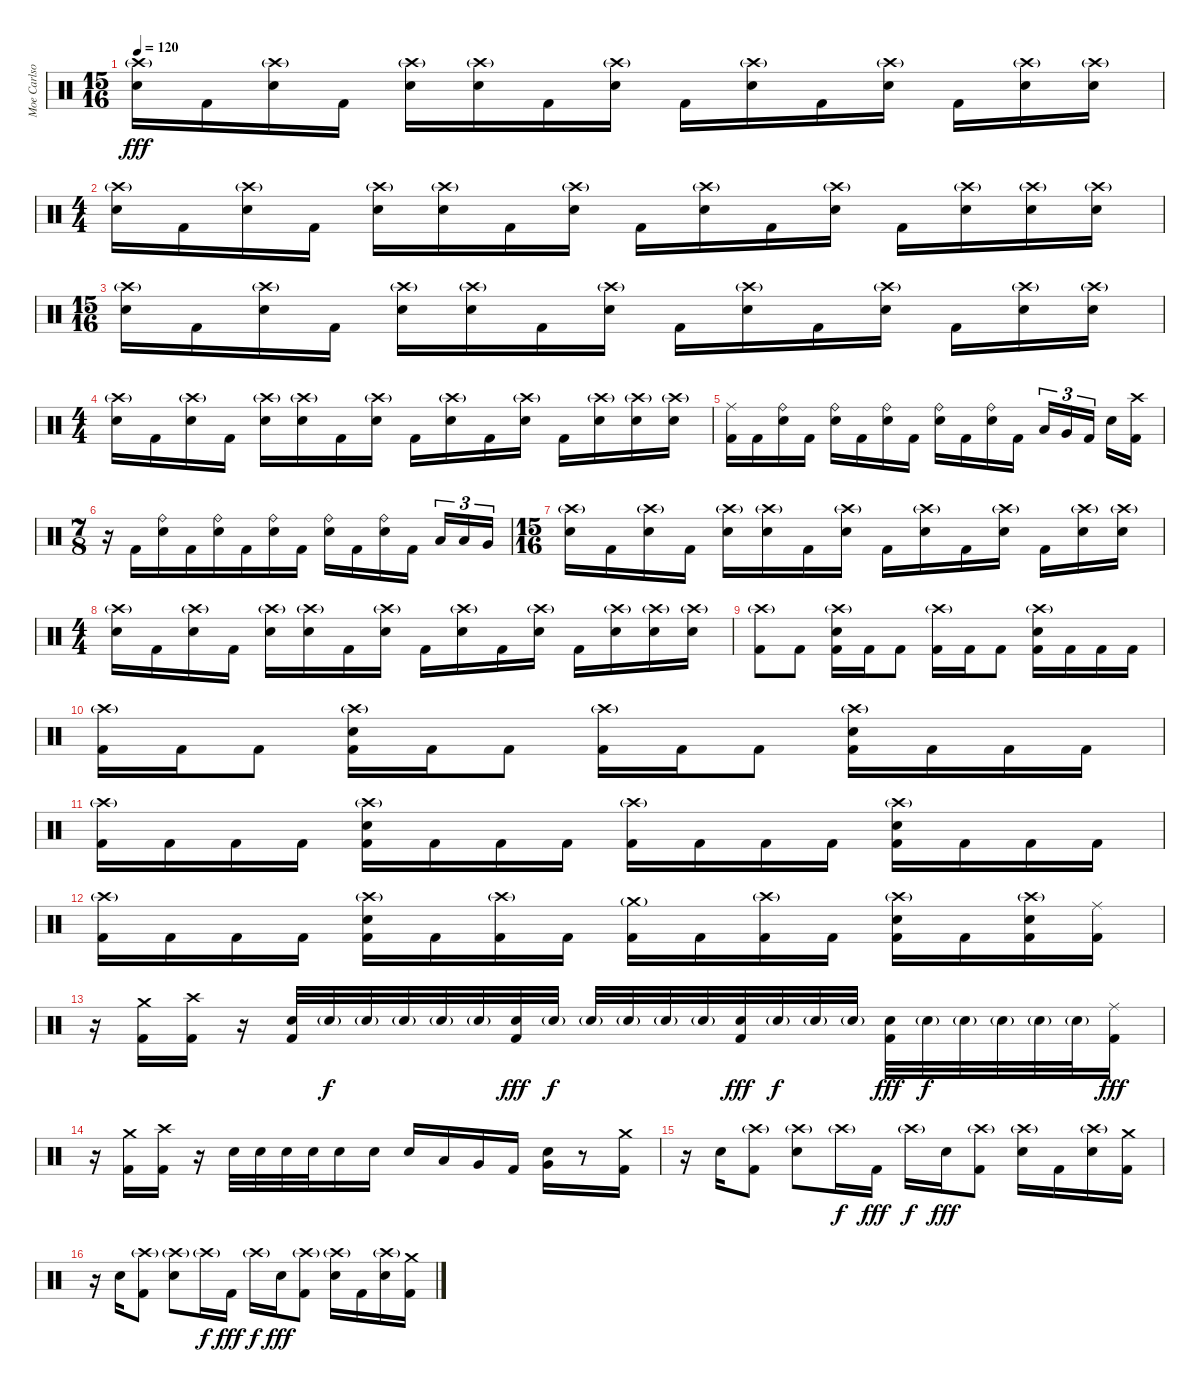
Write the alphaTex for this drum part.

\track ("Moe Carlson" "Moe Carlso") {instrument percussion}
\staff {score}
\articulation defaults
\ts (15 16)
\tempo 120
\clef neutral
\ks c
("Crash high (hit)"{g} "Electric Snare (hit)").16{dy fff} "Kick (hit) 2".16 ("Crash high (hit)"{g} "Electric Snare (hit)").16 "Kick (hit) 2".16 ("Crash high (hit)"{g} "Electric Snare (hit)").16 ("Crash high (hit)"{g} "Electric Snare (hit)").16 "Kick (hit) 2".16 ("Crash high (hit)"{g} "Electric Snare (hit)").16 "Kick (hit) 2".16 ("Crash high (hit)"{g} "Electric Snare (hit)").16 "Kick (hit) 2".16 ("Crash high (hit)"{g} "Electric Snare (hit)").16 "Kick (hit) 2".16 ("Crash high (hit)"{g} "Electric Snare (hit)").16 ("Crash high (hit)"{g} "Electric Snare (hit)").16 |
\ts (4 4)
("Crash high (hit)"{g} "Electric Snare (hit)").16 "Kick (hit) 2".16 ("Crash high (hit)"{g} "Electric Snare (hit)").16 "Kick (hit) 2".16 ("Crash high (hit)"{g} "Electric Snare (hit)").16 ("Crash high (hit)"{g} "Electric Snare (hit)").16 "Kick (hit) 2".16 ("Crash high (hit)"{g} "Electric Snare (hit)").16 "Kick (hit) 2".16 ("Crash high (hit)"{g} "Electric Snare (hit)").16 "Kick (hit) 2".16 ("Crash high (hit)"{g} "Electric Snare (hit)").16 "Kick (hit) 2".16 ("Crash high (hit)"{g} "Electric Snare (hit)").16 ("Crash high (hit)"{g} "Electric Snare (hit)").16 ("Crash high (hit)"{g} "Electric Snare (hit)").16 |
\ts (15 16)
("Crash high (hit)"{g} "Electric Snare (hit)").16 "Kick (hit) 2".16 ("Crash high (hit)"{g} "Electric Snare (hit)").16 "Kick (hit) 2".16 ("Crash high (hit)"{g} "Electric Snare (hit)").16 ("Crash high (hit)"{g} "Electric Snare (hit)").16 "Kick (hit) 2".16 ("Crash high (hit)"{g} "Electric Snare (hit)").16 "Kick (hit) 2".16 ("Crash high (hit)"{g} "Electric Snare (hit)").16 "Kick (hit) 2".16 ("Crash high (hit)"{g} "Electric Snare (hit)").16 "Kick (hit) 2".16 ("Crash high (hit)"{g} "Electric Snare (hit)").16 ("Crash high (hit)"{g} "Electric Snare (hit)").16 |
\ts (4 4)
("Crash high (hit)"{g} "Electric Snare (hit)").16 "Kick (hit) 2".16 ("Crash high (hit)"{g} "Electric Snare (hit)").16 "Kick (hit) 2".16 ("Crash high (hit)"{g} "Electric Snare (hit)").16 ("Crash high (hit)"{g} "Electric Snare (hit)").16 "Kick (hit) 2".16 ("Crash high (hit)"{g} "Electric Snare (hit)").16 "Kick (hit) 2".16 ("Crash high (hit)"{g} "Electric Snare (hit)").16 "Kick (hit) 2".16 ("Crash high (hit)"{g} "Electric Snare (hit)").16 "Kick (hit) 2".16 ("Crash high (hit)"{g} "Electric Snare (hit)").16 ("Crash high (hit)"{g} "Electric Snare (hit)").16 ("Crash high (hit)"{g} "Electric Snare (hit)").16 |
("Ride (middle)" "Kick (hit) 2").16 "Kick (hit) 2".16 ("Ride (bell)" "Electric Snare (hit)").16 "Kick (hit) 2".16 ("Ride (bell)" "Electric Snare (hit)").16 "Kick (hit) 2".16 ("Ride (bell)" "Electric Snare (hit)").16 "Kick (hit) 2".16 ("Ride (bell)" "Electric Snare (hit)").16 "Kick (hit) 2".16 ("Ride (bell)" "Electric Snare (hit)").16 "Kick (hit) 2".16 "Low Tom (hit)".16{tu (3 2)} "Very Low Tom (hit)".16{tu (3 2)} "Kick (hit) 2".16{tu (3 2)} "Electric Snare (hit)".16 ("Crash high (hit)" "Kick (hit) 2").16 |
\ts (7 8)
r.16 "Kick (hit) 2".16 ("Ride (bell)" "Electric Snare (hit)").16 "Kick (hit) 2".16 ("Ride (bell)" "Electric Snare (hit)").16 "Kick (hit) 2".16 ("Ride (bell)" "Electric Snare (hit)").16 "Kick (hit) 2".16 ("Ride (bell)" "Electric Snare (hit)").16 "Kick (hit) 2".16 ("Ride (bell)" "Electric Snare (hit)").16 "Kick (hit) 2".16 "Low Tom (hit)".16{tu (3 2)} "Low Tom (hit)".16{tu (3 2)} "Very Low Tom (hit)".16{tu (3 2)} |
\ts (15 16)
("Crash high (hit)"{g} "Electric Snare (hit)").16 "Kick (hit) 2".16 ("Crash high (hit)"{g} "Electric Snare (hit)").16 "Kick (hit) 2".16 ("Crash high (hit)"{g} "Electric Snare (hit)").16 ("Crash high (hit)"{g} "Electric Snare (hit)").16 "Kick (hit) 2".16 ("Crash high (hit)"{g} "Electric Snare (hit)").16 "Kick (hit) 2".16 ("Crash high (hit)"{g} "Electric Snare (hit)").16 "Kick (hit) 2".16 ("Crash high (hit)"{g} "Electric Snare (hit)").16 "Kick (hit) 2".16 ("Crash high (hit)"{g} "Electric Snare (hit)").16 ("Crash high (hit)"{g} "Electric Snare (hit)").16 |
\ts (4 4)
("Crash high (hit)"{g} "Electric Snare (hit)").16 "Kick (hit) 2".16 ("Crash high (hit)"{g} "Electric Snare (hit)").16 "Kick (hit) 2".16 ("Crash high (hit)"{g} "Electric Snare (hit)").16 ("Crash high (hit)"{g} "Electric Snare (hit)").16 "Kick (hit) 2".16 ("Crash high (hit)"{g} "Electric Snare (hit)").16 "Kick (hit) 2".16 ("Crash high (hit)"{g} "Electric Snare (hit)").16 "Kick (hit) 2".16 ("Crash high (hit)"{g} "Electric Snare (hit)").16 "Kick (hit) 2".16 ("Crash high (hit)"{g} "Electric Snare (hit)").16 ("Crash high (hit)"{g} "Electric Snare (hit)").16 ("Crash high (hit)"{g} "Electric Snare (hit)").16 |
("Crash high (hit)"{g} "Kick (hit) 2").8 "Kick (hit) 2".8 ("Crash high (hit)"{g} "Electric Snare (hit)" "Kick (hit) 2").16 "Kick (hit) 2".16 "Kick (hit) 2".8 ("Crash high (hit)"{g} "Kick (hit) 2").16 "Kick (hit) 2".16 "Kick (hit) 2".8 ("Crash high (hit)"{g} "Electric Snare (hit)" "Kick (hit) 2").16 "Kick (hit) 2".16 "Kick (hit) 2".16 "Kick (hit) 2".16 |
("Crash high (hit)"{g} "Kick (hit) 2").16 "Kick (hit) 2".16 "Kick (hit) 2".8 ("Crash high (hit)"{g} "Electric Snare (hit)" "Kick (hit) 2").16 "Kick (hit) 2".16 "Kick (hit) 2".8 ("Crash high (hit)"{g} "Kick (hit) 2").16 "Kick (hit) 2".16 "Kick (hit) 2".8 ("Crash high (hit)"{g} "Electric Snare (hit)" "Kick (hit) 2").16 "Kick (hit) 2".16 "Kick (hit) 2".16 "Kick (hit) 2".16 |
("Crash high (hit)"{g} "Kick (hit) 2").16 "Kick (hit) 2".16 "Kick (hit) 2".16 "Kick (hit) 2".16 ("Crash high (hit)"{g} "Electric Snare (hit)" "Kick (hit) 2").16 "Kick (hit) 2".16 "Kick (hit) 2".16 "Kick (hit) 2".16 ("Crash high (hit)"{g} "Kick (hit) 2").16 "Kick (hit) 2".16 "Kick (hit) 2".16 "Kick (hit) 2".16 ("Crash high (hit)"{g} "Electric Snare (hit)" "Kick (hit) 2").16 "Kick (hit) 2".16 "Kick (hit) 2".16 "Kick (hit) 2".16 |
("Crash high (hit)"{g} "Kick (hit) 2").16 "Kick (hit) 2".16 "Kick (hit) 2".16 "Kick (hit) 2".16 ("Crash high (hit)"{g} "Electric Snare (hit)" "Kick (hit) 2").16 "Kick (hit) 2".16 ("Crash high (hit)"{g} "Kick (hit) 2").16 "Kick (hit) 2".16 ("Crash medium (hit)"{g} "Kick (hit) 2").16 "Kick (hit) 2".16 ("Crash high (hit)"{g} "Kick (hit) 2").16 "Kick (hit) 2".16 ("Crash high (hit)"{g} "Electric Snare (hit)" "Kick (hit) 2").16 "Kick (hit) 2".16 ("Crash high (hit)"{g} "Electric Snare (hit)" "Kick (hit) 2").16 ("Ride (middle)" "Kick (hit) 2").16 |
r.16 ("Crash medium (hit)" "Kick (hit) 2").16 ("Crash high (hit)" "Kick (hit) 2").16 r.16 ("Electric Snare (hit)" "Kick (hit) 2").32 "Electric Snare (hit)"{g}.32{dy f} "Electric Snare (hit)"{g}.32 "Electric Snare (hit)"{g}.32 "Electric Snare (hit)"{g}.32 "Electric Snare (hit)"{g}.32 ("Electric Snare (hit)" "Kick (hit) 2").32{dy fff} "Electric Snare (hit)"{g}.32{dy f} "Electric Snare (hit)"{g}.32 "Electric Snare (hit)"{g}.32 "Electric Snare (hit)"{g}.32 "Electric Snare (hit)"{g}.32 ("Electric Snare (hit)" "Kick (hit) 2").32{dy fff} "Electric Snare (hit)"{g}.32{dy f} "Electric Snare (hit)"{g}.32 "Electric Snare (hit)"{g}.32 ("Electric Snare (hit)" "Kick (hit) 2").32{dy fff} "Electric Snare (hit)"{g}.32{dy f} "Electric Snare (hit)"{g}.32 "Electric Snare (hit)"{g}.32 "Electric Snare (hit)"{g}.32 "Electric Snare (hit)"{g}.32 ("Ride (middle)" "Kick (hit) 2").16{dy fff} |
r.16 ("Crash medium (hit)" "Kick (hit) 2").16 ("Crash high (hit)" "Kick (hit) 2").16 r.16 "Electric Snare (hit)".32 "Electric Snare (hit)".32 "Electric Snare (hit)".32 "Electric Snare (hit)".32 "Electric Snare (hit)".16 "Electric Snare (hit)".16 "Electric Snare (hit)".16 "Low Tom (hit)".16 "Very Low Tom (hit)".16 "Kick (hit) 2".16 ("Electric Snare (hit)" "Very Low Tom (hit)").16 r.8 ("Crash medium (hit)" "Kick (hit) 2").16 |
r.16 "Electric Snare (hit)".16 ("Crash high (hit)"{g} "Kick (hit) 2").8 ("Crash high (hit)"{g} "Electric Snare (hit)").8 "Crash high (hit)"{g}.16{dy f} "Kick (hit) 2".16{dy fff} "Crash high (hit)"{g}.16{dy f} "Electric Snare (hit)".16{dy fff} ("Crash high (hit)"{g} "Kick (hit) 2").8 ("Crash high (hit)"{g} "Electric Snare (hit)").16 "Kick (hit) 2".16 ("Crash high (hit)"{g} "Electric Snare (hit)").16 ("Crash medium (hit)" "Kick (hit) 2").16 |
r.16 "Electric Snare (hit)".16 ("Crash high (hit)"{g} "Kick (hit) 2").8 ("Crash high (hit)"{g} "Electric Snare (hit)").8 "Crash high (hit)"{g}.16{dy f} "Kick (hit) 2".16{dy fff} "Crash high (hit)"{g}.16{dy f} "Electric Snare (hit)".16{dy fff} ("Crash high (hit)"{g} "Kick (hit) 2").8 ("Crash high (hit)"{g} "Electric Snare (hit)").16 "Kick (hit) 2".16 ("Crash high (hit)"{g} "Electric Snare (hit)").16 ("Crash medium (hit)" "Kick (hit) 2").16
